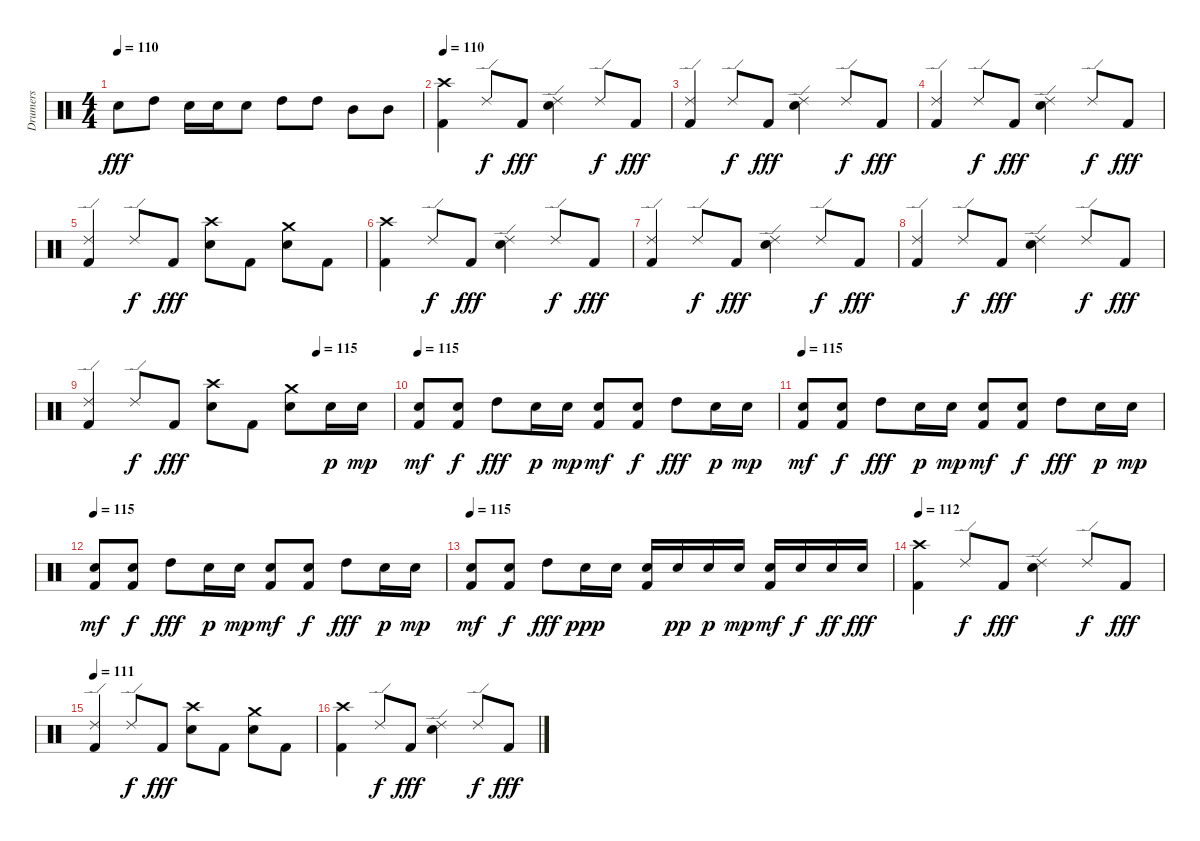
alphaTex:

\track ("Drumers" "Drumers") {instrument percussion}
\staff {score}
\articulation defaults
\ts (4 4)
\tempo 110
\clef neutral
\ks c "Electric Snare (hit)".8{dy fff} "High Tom (hit)".8 "Electric Snare (hit)".16 "Electric Snare (hit)".16 "Electric Snare (hit)".8 "High Tom (hit)".8 "High Tom (hit)".8 "Mid Tom (hit)".8 "Mid Tom (hit)".8
|
\tempo 110
("Crash high (hit)" "Kick (hit) 2").4 "Ride (edge) 2".8{dy f} "Kick (hit) 2".8{dy fff} ("Ride (edge) 2" "Electric Snare (hit)").4 "Ride (edge) 2".8{dy f} "Kick (hit) 2".8{dy fff} |
("Ride (edge) 2" "Kick (hit) 2").4 "Ride (edge) 2".8{dy f} "Kick (hit) 2".8{dy fff} ("Ride (edge) 2" "Electric Snare (hit)").4 "Ride (edge) 2".8{dy f} "Kick (hit) 2".8{dy fff} |
("Ride (edge) 2" "Kick (hit) 2").4 "Ride (edge) 2".8{dy f} "Kick (hit) 2".8{dy fff} ("Ride (edge) 2" "Electric Snare (hit)").4 "Ride (edge) 2".8{dy f} "Kick (hit) 2".8{dy fff} |
("Ride (edge) 2" "Kick (hit) 2").4 "Ride (edge) 2".8{dy f} "Kick (hit) 2".8{dy fff} ("Crash high (hit)" "Electric Snare (hit)").8 "Kick (hit) 2".8 ("Crash medium (hit)" "Electric Snare (hit)").8 "Kick (hit) 2".8 |
("Crash high (hit)" "Kick (hit) 2").4 "Ride (edge) 2".8{dy f} "Kick (hit) 2".8{dy fff} ("Ride (edge) 2" "Electric Snare (hit)").4 "Ride (edge) 2".8{dy f} "Kick (hit) 2".8{dy fff} |
("Ride (edge) 2" "Kick (hit) 2").4 "Ride (edge) 2".8{dy f} "Kick (hit) 2".8{dy fff} ("Ride (edge) 2" "Electric Snare (hit)").4 "Ride (edge) 2".8{dy f} "Kick (hit) 2".8{dy fff} |
("Ride (edge) 2" "Kick (hit) 2").4 "Ride (edge) 2".8{dy f} "Kick (hit) 2".8{dy fff} ("Ride (edge) 2" "Electric Snare (hit)").4 "Ride (edge) 2".8{dy f} "Kick (hit) 2".8{dy fff} |
\tempo (115 0.75)
("Ride (edge) 2" "Kick (hit) 2").4 "Ride (edge) 2".8{dy f} "Kick (hit) 2".8{dy fff} ("Crash high (hit)" "Electric Snare (hit)").8 "Kick (hit) 2".8 ("Crash medium (hit)" "Electric Snare (hit)").8 "Electric Snare (hit)".16{dy p} "Electric Snare (hit)".16{dy mp} |
\tempo 115
("Electric Snare (hit)" "Kick (hit) 2").8{dy mf} ("Electric Snare (hit)" "Kick (hit) 2").8{dy f} "High Tom (hit)".8{dy fff} "Electric Snare (hit)".16{dy p} "Electric Snare (hit)".16{dy mp} ("Electric Snare (hit)" "Kick (hit) 2").8{dy mf} ("Electric Snare (hit)" "Kick (hit) 2").8{dy f} "High Tom (hit)".8{dy fff} "Electric Snare (hit)".16{dy p} "Electric Snare (hit)".16{dy mp} |
\tempo 115
("Electric Snare (hit)" "Kick (hit) 2").8{dy mf} ("Electric Snare (hit)" "Kick (hit) 2").8{dy f} "High Tom (hit)".8{dy fff} "Electric Snare (hit)".16{dy p} "Electric Snare (hit)".16{dy mp} ("Electric Snare (hit)" "Kick (hit) 2").8{dy mf} ("Electric Snare (hit)" "Kick (hit) 2").8{dy f} "High Tom (hit)".8{dy fff} "Electric Snare (hit)".16{dy p} "Electric Snare (hit)".16{dy mp} |
\tempo 115
("Electric Snare (hit)" "Kick (hit) 2").8{dy mf} ("Electric Snare (hit)" "Kick (hit) 2").8{dy f} "High Tom (hit)".8{dy fff} "Electric Snare (hit)".16{dy p} "Electric Snare (hit)".16{dy mp} ("Electric Snare (hit)" "Kick (hit) 2").8{dy mf} ("Electric Snare (hit)" "Kick (hit) 2").8{dy f} "High Tom (hit)".8{dy fff} "Electric Snare (hit)".16{dy p} "Electric Snare (hit)".16{dy mp} |
\tempo 115
("Electric Snare (hit)" "Kick (hit) 2").8{dy mf} ("Electric Snare (hit)" "Kick (hit) 2").8{dy f} "High Tom (hit)".8{dy fff} "Electric Snare (hit)".16{dy ppp} "Electric Snare (hit)".16 ("Electric Snare (hit)" "Kick (hit) 2").16 "Electric Snare (hit)".16{dy pp} "Electric Snare (hit)".16{dy p} "Electric Snare (hit)".16{dy mp} ("Electric Snare (hit)" "Kick (hit) 2").16{dy mf} "Electric Snare (hit)".16{dy f} "Electric Snare (hit)".16{dy ff} "Electric Snare (hit)".16{dy fff} |
\tempo 112
("Crash high (hit)" "Kick (hit) 2").4 "Ride (edge) 2".8{dy f} "Kick (hit) 2".8{dy fff} ("Ride (edge) 2" "Electric Snare (hit)").4 "Ride (edge) 2".8{dy f} "Kick (hit) 2".8{dy fff} |
\tempo 111
("Ride (edge) 2" "Kick (hit) 2").4 "Ride (edge) 2".8{dy f} "Kick (hit) 2".8{dy fff} ("Crash high (hit)" "Electric Snare (hit)").8 "Kick (hit) 2".8 ("Crash medium (hit)" "Electric Snare (hit)").8 "Kick (hit) 2".8 |
("Crash high (hit)" "Kick (hit) 2").4 "Ride (edge) 2".8{dy f} "Kick (hit) 2".8{dy fff} ("Ride (edge) 2" "Electric Snare (hit)").4 "Ride (edge) 2".8{dy f} "Kick (hit) 2".8{dy fff}
